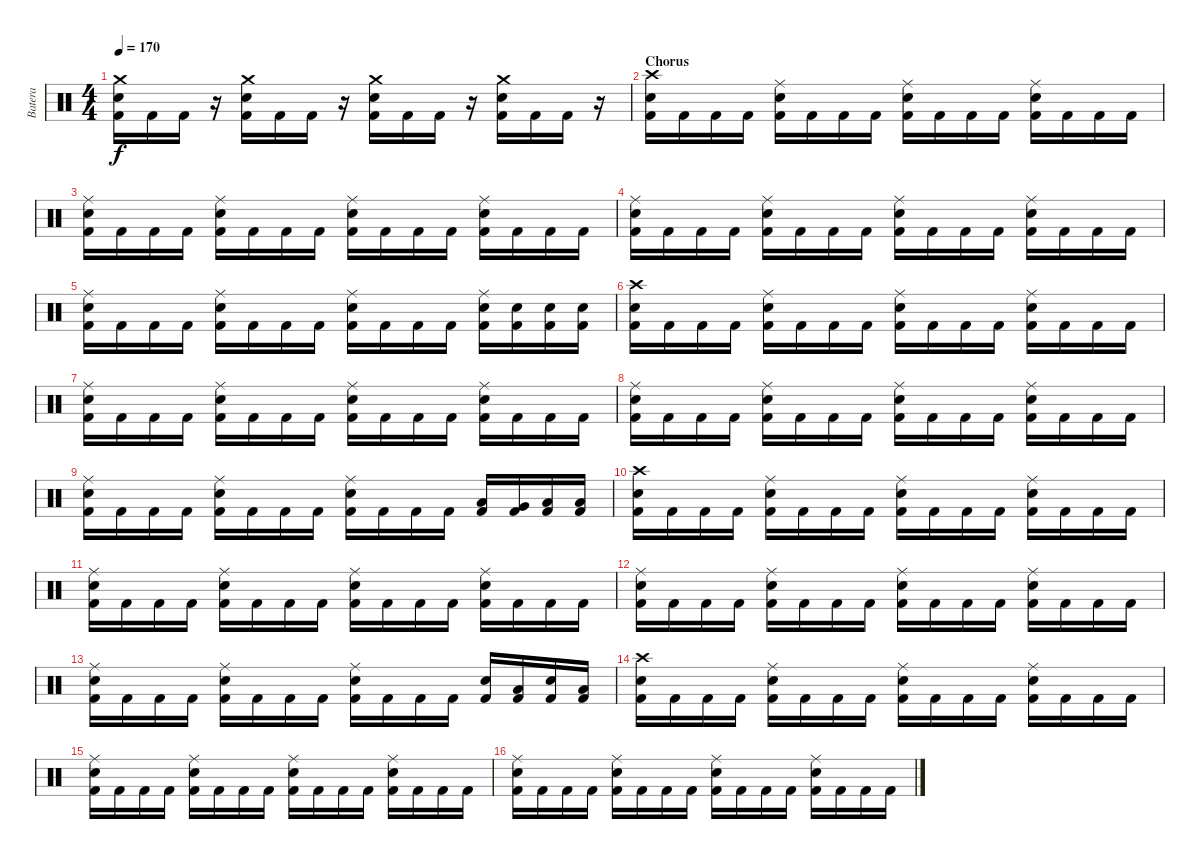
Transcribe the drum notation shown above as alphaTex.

\track ("Batera" "Batera") {instrument percussion}
\staff {score}
\articulation defaults
\ts (4 4)
\tempo 170
\clef neutral
\ks c
("Crash medium (hit)" "Electric Snare (hit)" "Kick (hit) 2").16{dy f} "Kick (hit) 2".16 "Kick (hit) 2".16 r.16 ("Crash medium (hit)" "Electric Snare (hit)" "Kick (hit) 2").16 "Kick (hit) 2".16 "Kick (hit) 2".16 r.16 ("Crash medium (hit)" "Electric Snare (hit)" "Kick (hit) 2").16 "Kick (hit) 2".16 "Kick (hit) 2".16 r.16 ("Crash medium (hit)" "Electric Snare (hit)" "Kick (hit) 2").16 "Kick (hit) 2".16 "Kick (hit) 2".16 r.16 |
\section ("" "Chorus")
("Crash high (hit)" "Electric Snare (hit)" "Kick (hit) 2").16 "Kick (hit) 2".16 "Kick (hit) 2".16 "Kick (hit) 2".16 ("Ride (middle)" "Electric Snare (hit)" "Kick (hit) 2").16 "Kick (hit) 2".16 "Kick (hit) 2".16 "Kick (hit) 2".16 ("Ride (middle)" "Electric Snare (hit)" "Kick (hit) 2").16 "Kick (hit) 2".16 "Kick (hit) 2".16 "Kick (hit) 2".16 ("Ride (middle)" "Electric Snare (hit)" "Kick (hit) 2").16 "Kick (hit) 2".16 "Kick (hit) 2".16 "Kick (hit) 2".16 |
("Ride (middle)" "Electric Snare (hit)" "Kick (hit) 2").16 "Kick (hit) 2".16 "Kick (hit) 2".16 "Kick (hit) 2".16 ("Ride (middle)" "Electric Snare (hit)" "Kick (hit) 2").16 "Kick (hit) 2".16 "Kick (hit) 2".16 "Kick (hit) 2".16 ("Ride (middle)" "Electric Snare (hit)" "Kick (hit) 2").16 "Kick (hit) 2".16 "Kick (hit) 2".16 "Kick (hit) 2".16 ("Ride (middle)" "Electric Snare (hit)" "Kick (hit) 2").16 "Kick (hit) 2".16 "Kick (hit) 2".16 "Kick (hit) 2".16 |
("Ride (middle)" "Electric Snare (hit)" "Kick (hit) 2").16 "Kick (hit) 2".16 "Kick (hit) 2".16 "Kick (hit) 2".16 ("Ride (middle)" "Electric Snare (hit)" "Kick (hit) 2").16 "Kick (hit) 2".16 "Kick (hit) 2".16 "Kick (hit) 2".16 ("Ride (middle)" "Electric Snare (hit)" "Kick (hit) 2").16 "Kick (hit) 2".16 "Kick (hit) 2".16 "Kick (hit) 2".16 ("Ride (middle)" "Electric Snare (hit)" "Kick (hit) 2").16 "Kick (hit) 2".16 "Kick (hit) 2".16 "Kick (hit) 2".16 |
("Ride (middle)" "Electric Snare (hit)" "Kick (hit) 2").16 "Kick (hit) 2".16 "Kick (hit) 2".16 "Kick (hit) 2".16 ("Ride (middle)" "Electric Snare (hit)" "Kick (hit) 2").16 "Kick (hit) 2".16 "Kick (hit) 2".16 "Kick (hit) 2".16 ("Ride (middle)" "Electric Snare (hit)" "Kick (hit) 2").16 "Kick (hit) 2".16 "Kick (hit) 2".16 "Kick (hit) 2".16 ("Ride (middle)" "Electric Snare (hit)" "Kick (hit) 2").16 ("Electric Snare (hit)" "Kick (hit) 2").16 ("Electric Snare (hit)" "Kick (hit) 2").16 ("Electric Snare (hit)" "Kick (hit) 2").16 |
("Crash high (hit)" "Electric Snare (hit)" "Kick (hit) 2").16 "Kick (hit) 2".16 "Kick (hit) 2".16 "Kick (hit) 2".16 ("Ride (middle)" "Electric Snare (hit)" "Kick (hit) 2").16 "Kick (hit) 2".16 "Kick (hit) 2".16 "Kick (hit) 2".16 ("Ride (middle)" "Electric Snare (hit)" "Kick (hit) 2").16 "Kick (hit) 2".16 "Kick (hit) 2".16 "Kick (hit) 2".16 ("Ride (middle)" "Electric Snare (hit)" "Kick (hit) 2").16 "Kick (hit) 2".16 "Kick (hit) 2".16 "Kick (hit) 2".16 |
("Ride (middle)" "Electric Snare (hit)" "Kick (hit) 2").16 "Kick (hit) 2".16 "Kick (hit) 2".16 "Kick (hit) 2".16 ("Ride (middle)" "Electric Snare (hit)" "Kick (hit) 2").16 "Kick (hit) 2".16 "Kick (hit) 2".16 "Kick (hit) 2".16 ("Ride (middle)" "Electric Snare (hit)" "Kick (hit) 2").16 "Kick (hit) 2".16 "Kick (hit) 2".16 "Kick (hit) 2".16 ("Ride (middle)" "Electric Snare (hit)" "Kick (hit) 2").16 "Kick (hit) 2".16 "Kick (hit) 2".16 "Kick (hit) 2".16 |
("Ride (middle)" "Electric Snare (hit)" "Kick (hit) 2").16 "Kick (hit) 2".16 "Kick (hit) 2".16 "Kick (hit) 2".16 ("Ride (middle)" "Electric Snare (hit)" "Kick (hit) 2").16 "Kick (hit) 2".16 "Kick (hit) 2".16 "Kick (hit) 2".16 ("Ride (middle)" "Electric Snare (hit)" "Kick (hit) 2").16 "Kick (hit) 2".16 "Kick (hit) 2".16 "Kick (hit) 2".16 ("Ride (middle)" "Electric Snare (hit)" "Kick (hit) 2").16 "Kick (hit) 2".16 "Kick (hit) 2".16 "Kick (hit) 2".16 |
("Ride (middle)" "Electric Snare (hit)" "Kick (hit) 2").16 "Kick (hit) 2".16 "Kick (hit) 2".16 "Kick (hit) 2".16 ("Ride (middle)" "Electric Snare (hit)" "Kick (hit) 2").16 "Kick (hit) 2".16 "Kick (hit) 2".16 "Kick (hit) 2".16 ("Ride (middle)" "Electric Snare (hit)" "Kick (hit) 2").16 "Kick (hit) 2".16 "Kick (hit) 2".16 "Kick (hit) 2".16 ("Low Floor Tom (hit)" "Kick (hit) 2").16 ("Very Low Tom (hit)" "Kick (hit) 2").16 ("Low Floor Tom (hit)" "Kick (hit) 2").16 ("Low Tom (hit)" "Kick (hit) 2").16 |
("Crash high (hit)" "Electric Snare (hit)" "Kick (hit) 2").16 "Kick (hit) 2".16 "Kick (hit) 2".16 "Kick (hit) 2".16 ("Ride (middle)" "Electric Snare (hit)" "Kick (hit) 2").16 "Kick (hit) 2".16 "Kick (hit) 2".16 "Kick (hit) 2".16 ("Ride (middle)" "Electric Snare (hit)" "Kick (hit) 2").16 "Kick (hit) 2".16 "Kick (hit) 2".16 "Kick (hit) 2".16 ("Ride (middle)" "Electric Snare (hit)" "Kick (hit) 2").16 "Kick (hit) 2".16 "Kick (hit) 2".16 "Kick (hit) 2".16 |
("Ride (middle)" "Electric Snare (hit)" "Kick (hit) 2").16 "Kick (hit) 2".16 "Kick (hit) 2".16 "Kick (hit) 2".16 ("Ride (middle)" "Electric Snare (hit)" "Kick (hit) 2").16 "Kick (hit) 2".16 "Kick (hit) 2".16 "Kick (hit) 2".16 ("Ride (middle)" "Electric Snare (hit)" "Kick (hit) 2").16 "Kick (hit) 2".16 "Kick (hit) 2".16 "Kick (hit) 2".16 ("Ride (middle)" "Electric Snare (hit)" "Kick (hit) 2").16 "Kick (hit) 2".16 "Kick (hit) 2".16 "Kick (hit) 2".16 |
("Ride (middle)" "Electric Snare (hit)" "Kick (hit) 2").16 "Kick (hit) 2".16 "Kick (hit) 2".16 "Kick (hit) 2".16 ("Ride (middle)" "Electric Snare (hit)" "Kick (hit) 2").16 "Kick (hit) 2".16 "Kick (hit) 2".16 "Kick (hit) 2".16 ("Ride (middle)" "Electric Snare (hit)" "Kick (hit) 2").16 "Kick (hit) 2".16 "Kick (hit) 2".16 "Kick (hit) 2".16 ("Ride (middle)" "Electric Snare (hit)" "Kick (hit) 2").16 "Kick (hit) 2".16 "Kick (hit) 2".16 "Kick (hit) 2".16 |
("Ride (middle)" "Electric Snare (hit)" "Kick (hit) 2").16 "Kick (hit) 2".16 "Kick (hit) 2".16 "Kick (hit) 2".16 ("Ride (middle)" "Electric Snare (hit)" "Kick (hit) 2").16 "Kick (hit) 2".16 "Kick (hit) 2".16 "Kick (hit) 2".16 ("Ride (middle)" "Electric Snare (hit)" "Kick (hit) 2").16 "Kick (hit) 2".16 "Kick (hit) 2".16 "Kick (hit) 2".16 ("Electric Snare (hit)" "Kick (hit) 2").16 ("Low Floor Tom (hit)" "Kick (hit) 2").16 ("Electric Snare (hit)" "Kick (hit) 2").16 ("Low Floor Tom (hit)" "Kick (hit) 2").16 |
("Crash high (hit)" "Electric Snare (hit)" "Kick (hit) 2").16 "Kick (hit) 2".16 "Kick (hit) 2".16 "Kick (hit) 2".16 ("Ride (middle)" "Electric Snare (hit)" "Kick (hit) 2").16 "Kick (hit) 2".16 "Kick (hit) 2".16 "Kick (hit) 2".16 ("Ride (middle)" "Electric Snare (hit)" "Kick (hit) 2").16 "Kick (hit) 2".16 "Kick (hit) 2".16 "Kick (hit) 2".16 ("Ride (middle)" "Electric Snare (hit)" "Kick (hit) 2").16 "Kick (hit) 2".16 "Kick (hit) 2".16 "Kick (hit) 2".16 |
("Ride (middle)" "Electric Snare (hit)" "Kick (hit) 2").16 "Kick (hit) 2".16 "Kick (hit) 2".16 "Kick (hit) 2".16 ("Ride (middle)" "Electric Snare (hit)" "Kick (hit) 2").16 "Kick (hit) 2".16 "Kick (hit) 2".16 "Kick (hit) 2".16 ("Ride (middle)" "Electric Snare (hit)" "Kick (hit) 2").16 "Kick (hit) 2".16 "Kick (hit) 2".16 "Kick (hit) 2".16 ("Ride (middle)" "Electric Snare (hit)" "Kick (hit) 2").16 "Kick (hit) 2".16 "Kick (hit) 2".16 "Kick (hit) 2".16 |
("Ride (middle)" "Electric Snare (hit)" "Kick (hit) 2").16 "Kick (hit) 2".16 "Kick (hit) 2".16 "Kick (hit) 2".16 ("Ride (middle)" "Electric Snare (hit)" "Kick (hit) 2").16 "Kick (hit) 2".16 "Kick (hit) 2".16 "Kick (hit) 2".16 ("Ride (middle)" "Electric Snare (hit)" "Kick (hit) 2").16 "Kick (hit) 2".16 "Kick (hit) 2".16 "Kick (hit) 2".16 ("Ride (middle)" "Electric Snare (hit)" "Kick (hit) 2").16 "Kick (hit) 2".16 "Kick (hit) 2".16 "Kick (hit) 2".16
